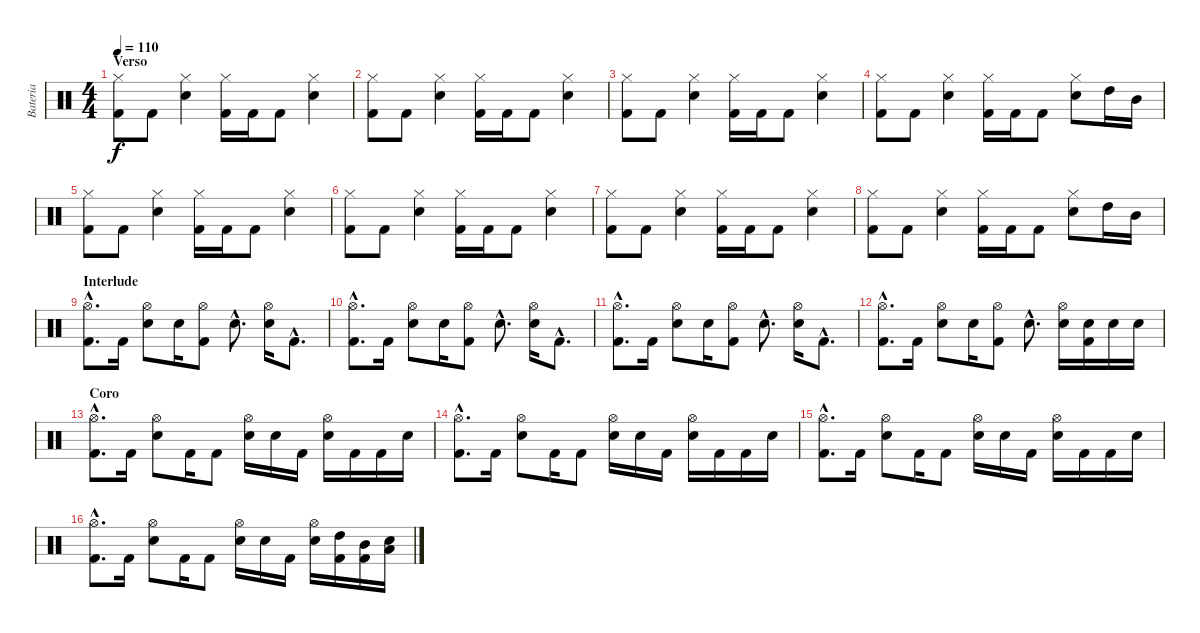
\track ("Bateria" "Bateria") {instrument percussion}
\staff {score}
\articulation defaults
\ts (4 4)
\section ("" "Verso")
\tempo 110
\clef neutral
\ks c
("Kick (hit) 2" "Hi-Hat (closed)").8{dy f} "Kick (hit) 2".8 ("Electric Snare (hit)" "Hi-Hat (closed)").4 ("Kick (hit) 2" "Hi-Hat (closed)").16 "Kick (hit) 2".16 "Kick (hit) 2".8 ("Electric Snare (hit)" "Hi-Hat (closed)").4 |
("Kick (hit) 2" "Hi-Hat (closed)").8 "Kick (hit) 2".8 ("Electric Snare (hit)" "Hi-Hat (closed)").4 ("Kick (hit) 2" "Hi-Hat (closed)").16 "Kick (hit) 2".16 "Kick (hit) 2".8 ("Electric Snare (hit)" "Hi-Hat (closed)").4 |
("Kick (hit) 2" "Hi-Hat (closed)").8 "Kick (hit) 2".8 ("Electric Snare (hit)" "Hi-Hat (closed)").4 ("Kick (hit) 2" "Hi-Hat (closed)").16 "Kick (hit) 2".16 "Kick (hit) 2".8 ("Electric Snare (hit)" "Hi-Hat (closed)").4 |
("Kick (hit) 2" "Hi-Hat (closed)").8 "Kick (hit) 2".8 ("Electric Snare (hit)" "Hi-Hat (closed)").4 ("Kick (hit) 2" "Hi-Hat (closed)").16 "Kick (hit) 2".16 "Kick (hit) 2".8 ("Electric Snare (hit)" "Hi-Hat (closed)").8 "High Tom (hit)".16 "Mid Tom (hit)".16 |
("Kick (hit) 2" "Hi-Hat (closed)").8 "Kick (hit) 2".8 ("Electric Snare (hit)" "Hi-Hat (closed)").4 ("Kick (hit) 2" "Hi-Hat (closed)").16 "Kick (hit) 2".16 "Kick (hit) 2".8 ("Electric Snare (hit)" "Hi-Hat (closed)").4 |
("Kick (hit) 2" "Hi-Hat (closed)").8 "Kick (hit) 2".8 ("Electric Snare (hit)" "Hi-Hat (closed)").4 ("Kick (hit) 2" "Hi-Hat (closed)").16 "Kick (hit) 2".16 "Kick (hit) 2".8 ("Electric Snare (hit)" "Hi-Hat (closed)").4 |
("Kick (hit) 2" "Hi-Hat (closed)").8 "Kick (hit) 2".8 ("Electric Snare (hit)" "Hi-Hat (closed)").4 ("Kick (hit) 2" "Hi-Hat (closed)").16 "Kick (hit) 2".16 "Kick (hit) 2".8 ("Electric Snare (hit)" "Hi-Hat (closed)").4 |
("Kick (hit) 2" "Hi-Hat (closed)").8 "Kick (hit) 2".8 ("Electric Snare (hit)" "Hi-Hat (closed)").4 ("Kick (hit) 2" "Hi-Hat (closed)").16 "Kick (hit) 2".16 "Kick (hit) 2".8 ("Electric Snare (hit)" "Hi-Hat (closed)").8 "High Tom (hit)".16 "Mid Tom (hit)".16 |
\section ("" "Interlude")
("Kick (hit) 2"{hac} "Hi-Hat (open)"{hac}).8{d} "Kick (hit) 2".16 ("Electric Snare (hit)" "Hi-Hat (open)").8 "Electric Snare (hit)".16 ("Kick (hit) 2" "Hi-Hat (open)").8 "Electric Snare (hit)"{hac}.8{d} ("Electric Snare (hit)" "Hi-Hat (open)").16 "Kick (hit) 2"{hac}.8{d} |
("Kick (hit) 2"{hac} "Hi-Hat (open)"{hac}).8{d} "Kick (hit) 2".16 ("Electric Snare (hit)" "Hi-Hat (open)").8 "Electric Snare (hit)".16 ("Kick (hit) 2" "Hi-Hat (open)").8 "Electric Snare (hit)"{hac}.8{d} ("Electric Snare (hit)" "Hi-Hat (open)").16 "Kick (hit) 2"{hac}.8{d} |
("Kick (hit) 2"{hac} "Hi-Hat (open)"{hac}).8{d} "Kick (hit) 2".16 ("Electric Snare (hit)" "Hi-Hat (open)").8 "Electric Snare (hit)".16 ("Kick (hit) 2" "Hi-Hat (open)").8 "Electric Snare (hit)"{hac}.8{d} ("Electric Snare (hit)" "Hi-Hat (open)").16 "Kick (hit) 2"{hac}.8{d} |
("Kick (hit) 2"{hac} "Hi-Hat (open)"{hac}).8{d} "Kick (hit) 2".16 ("Electric Snare (hit)" "Hi-Hat (open)").8 "Electric Snare (hit)".16 ("Kick (hit) 2" "Hi-Hat (open)").8 "Electric Snare (hit)"{hac}.8{d} ("Electric Snare (hit)" "Hi-Hat (open)").16 ("Kick (hit) 2" "Electric Snare (hit)").16 "Electric Snare (hit)".16 "Electric Snare (hit)".16 |
\section ("" "Coro")
("Kick (hit) 2"{hac} "Hi-Hat (open)"{hac}).8{d} "Kick (hit) 2".16 ("Electric Snare (hit)" "Hi-Hat (open)").8 "Kick (hit) 2".16 "Kick (hit) 2".8 ("Electric Snare (hit)" "Hi-Hat (open)").16 "Electric Snare (hit)".16 "Kick (hit) 2".16 ("Electric Snare (hit)" "Hi-Hat (open)").16 "Kick (hit) 2".16 "Kick (hit) 2".16 "Electric Snare (hit)".16 |
("Kick (hit) 2"{hac} "Hi-Hat (open)"{hac}).8{d} "Kick (hit) 2".16 ("Electric Snare (hit)" "Hi-Hat (open)").8 "Kick (hit) 2".16 "Kick (hit) 2".8 ("Electric Snare (hit)" "Hi-Hat (open)").16 "Electric Snare (hit)".16 "Kick (hit) 2".16 ("Electric Snare (hit)" "Hi-Hat (open)").16 "Kick (hit) 2".16 "Kick (hit) 2".16 "Electric Snare (hit)".16 |
("Kick (hit) 2"{hac} "Hi-Hat (open)"{hac}).8{d} "Kick (hit) 2".16 ("Electric Snare (hit)" "Hi-Hat (open)").8 "Kick (hit) 2".16 "Kick (hit) 2".8 ("Electric Snare (hit)" "Hi-Hat (open)").16 "Electric Snare (hit)".16 "Kick (hit) 2".16 ("Electric Snare (hit)" "Hi-Hat (open)").16 "Kick (hit) 2".16 "Kick (hit) 2".16 "Electric Snare (hit)".16 |
("Kick (hit) 2"{hac} "Hi-Hat (open)"{hac}).8{d} "Kick (hit) 2".16 ("Electric Snare (hit)" "Hi-Hat (open)").8 "Kick (hit) 2".16 "Kick (hit) 2".8 ("Electric Snare (hit)" "Hi-Hat (open)").16 "Electric Snare (hit)".16 "Kick (hit) 2".16 ("Electric Snare (hit)" "Hi-Hat (open)").16 ("Kick (hit) 2" "High Tom (hit)").16 ("Kick (hit) 2" "Mid Tom (hit)").16 ("Electric Snare (hit)" "Low Tom (hit)").16
